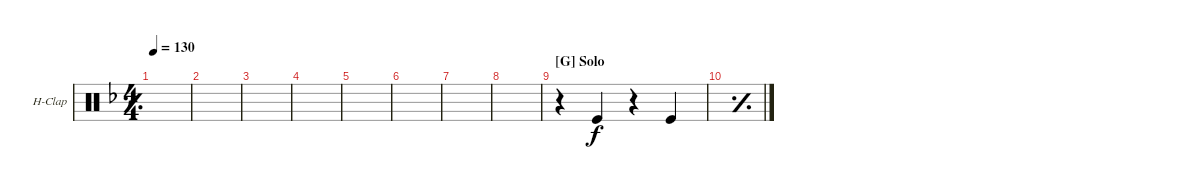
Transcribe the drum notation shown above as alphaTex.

\defaultSystemsLayout 4
\bracketExtendMode groupsimilarinstruments
\firstSystemTrackNameOrientation horizontal
\otherSystemsTrackNameOrientation horizontal
\track ("Hand Clap" "H-Clap") {instrument percussion}
\staff {score}
\articulation defaults
\ts (4 4)
\tempo 130
\clef neutral
\simile simple
\ks f
|
|
|
|
|
|
|
|
\section ("G" "Solo")
r.4 "Kick (hit)".4 r.4 "Kick (hit)".4 |
\simile simple
